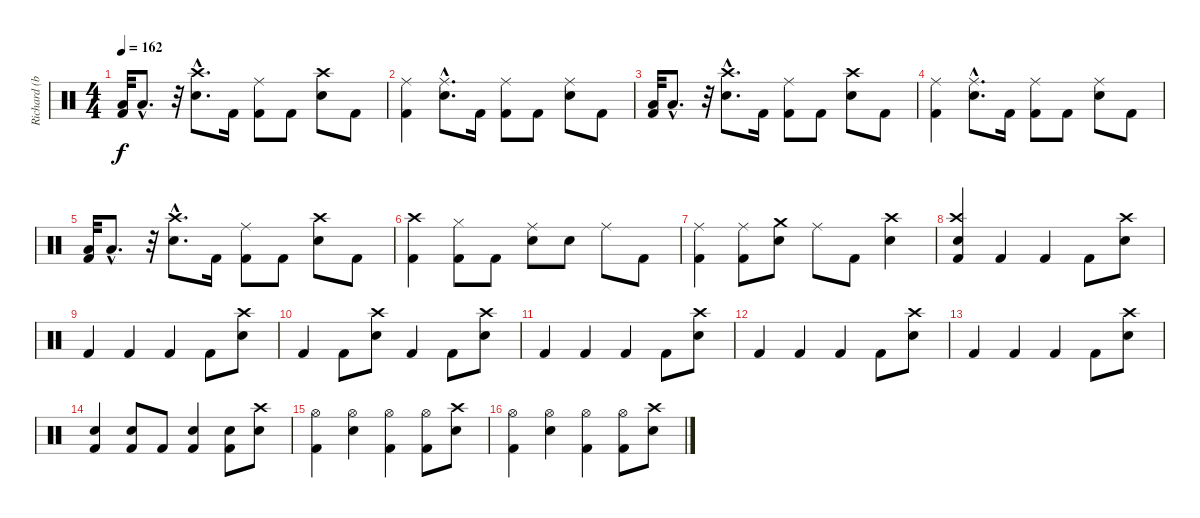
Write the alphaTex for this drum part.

\track ("Richard (batterie)" "Richard (b") {instrument percussion}
\staff {score}
\articulation defaults
\ts (4 4)
\tempo 162
\clef neutral
\ks c
("Low Tom (hit)" "Kick (hit) 2").32{dy f} "Low Tom (hit)"{hac}.8{d} r.32 ("Crash high (hit)"{hac} "Snare (hit) 2"{hac}).8{d} "Kick (hit) 2".16 ("Ride (middle)" "Kick (hit) 2").8 "Kick (hit) 2".8 ("Crash high (hit)" "Snare (hit) 2").8 "Kick (hit) 2".8 |
("Ride (middle)" "Kick (hit) 2").4 ("Ride (middle)"{hac} "Snare (hit) 2"{hac}).8{d} "Kick (hit) 2".16 ("Ride (middle)" "Kick (hit) 2").8 "Kick (hit) 2".8 ("Ride (middle)" "Snare (hit) 2").8 "Kick (hit) 2".8 |
("Low Tom (hit)" "Kick (hit) 2").32 "Low Tom (hit)"{hac}.8{d} r.32 ("Crash high (hit)"{hac} "Snare (hit) 2"{hac}).8{d} "Kick (hit) 2".16 ("Ride (middle)" "Kick (hit) 2").8 "Kick (hit) 2".8 ("Crash high (hit)" "Snare (hit) 2").8 "Kick (hit) 2".8 |
("Ride (middle)" "Kick (hit) 2").4 ("Ride (middle)"{hac} "Snare (hit) 2"{hac}).8{d} "Kick (hit) 2".16 ("Ride (middle)" "Kick (hit) 2").8 "Kick (hit) 2".8 ("Ride (middle)" "Snare (hit) 2").8 "Kick (hit) 2".8 |
("Low Tom (hit)" "Kick (hit) 2").32 "Low Tom (hit)"{hac}.8{d} r.32 ("Crash high (hit)"{hac} "Snare (hit) 2"{hac}).8{d} "Kick (hit) 2".16 ("Ride (middle)" "Kick (hit) 2").8 "Kick (hit) 2".8 ("Crash high (hit)" "Snare (hit) 2").8 "Kick (hit) 2".8 |
("Crash high (hit)" "Kick (hit) 2").4 ("Hi-Hat (closed)" "Kick (hit) 2").8 "Kick (hit) 2".8 ("Ride (middle)" "Snare (hit) 2").8 "Snare (hit) 2".8 "Ride (middle)".8 "Kick (hit) 2".8 |
("Ride (middle)" "Kick (hit) 2").4 ("Ride (middle)" "Kick (hit) 2").8 ("Crash medium (hit)" "Snare (hit) 2").8 "Ride (middle)".8 "Kick (hit) 2".8 ("Crash high (hit)" "Snare (hit) 2").4 |
("Crash high (hit)" "Snare (hit) 2" "Kick (hit) 2").4 "Kick (hit) 2".4 "Kick (hit) 2".4 "Kick (hit) 2".8 ("Crash high (hit)" "Snare (hit) 2").8 |
"Kick (hit) 2".4 "Kick (hit) 2".4 "Kick (hit) 2".4 "Kick (hit) 2".8 ("Crash high (hit)" "Snare (hit) 2").8 |
"Kick (hit) 2".4 "Kick (hit) 2".8 ("Crash high (hit)" "Snare (hit) 2").8 "Kick (hit) 2".4 "Kick (hit) 2".8 ("Crash high (hit)" "Snare (hit) 2").8 |
"Kick (hit) 2".4 "Kick (hit) 2".4 "Kick (hit) 2".4 "Kick (hit) 2".8 ("Crash high (hit)" "Snare (hit) 2").8 |
"Kick (hit) 2".4 "Kick (hit) 2".4 "Kick (hit) 2".4 "Kick (hit) 2".8 ("Crash high (hit)" "Snare (hit) 2").8 |
"Kick (hit) 2".4 "Kick (hit) 2".4 "Kick (hit) 2".4 "Kick (hit) 2".8 ("Crash high (hit)" "Snare (hit) 2").8 |
("Snare (hit) 2" "Kick (hit) 2").4 ("Snare (hit) 2" "Kick (hit) 2").8 "Kick (hit) 2".8 ("Snare (hit) 2" "Kick (hit) 2").4 ("Snare (hit) 2" "Kick (hit) 2").8 ("Crash high (hit)" "Snare (hit) 2").8 |
("Hi-Hat (open)" "Kick (hit) 2").4 ("Hi-Hat (open)" "Snare (hit) 2").4 ("Hi-Hat (open)" "Kick (hit) 2").4 ("Hi-Hat (open)" "Kick (hit) 2").8 ("Crash high (hit)" "Snare (hit) 2").8 |
("Hi-Hat (open)" "Kick (hit) 2").4 ("Hi-Hat (open)" "Snare (hit) 2").4 ("Hi-Hat (open)" "Kick (hit) 2").4 ("Hi-Hat (open)" "Kick (hit) 2").8 ("Crash high (hit)" "Snare (hit) 2").8
